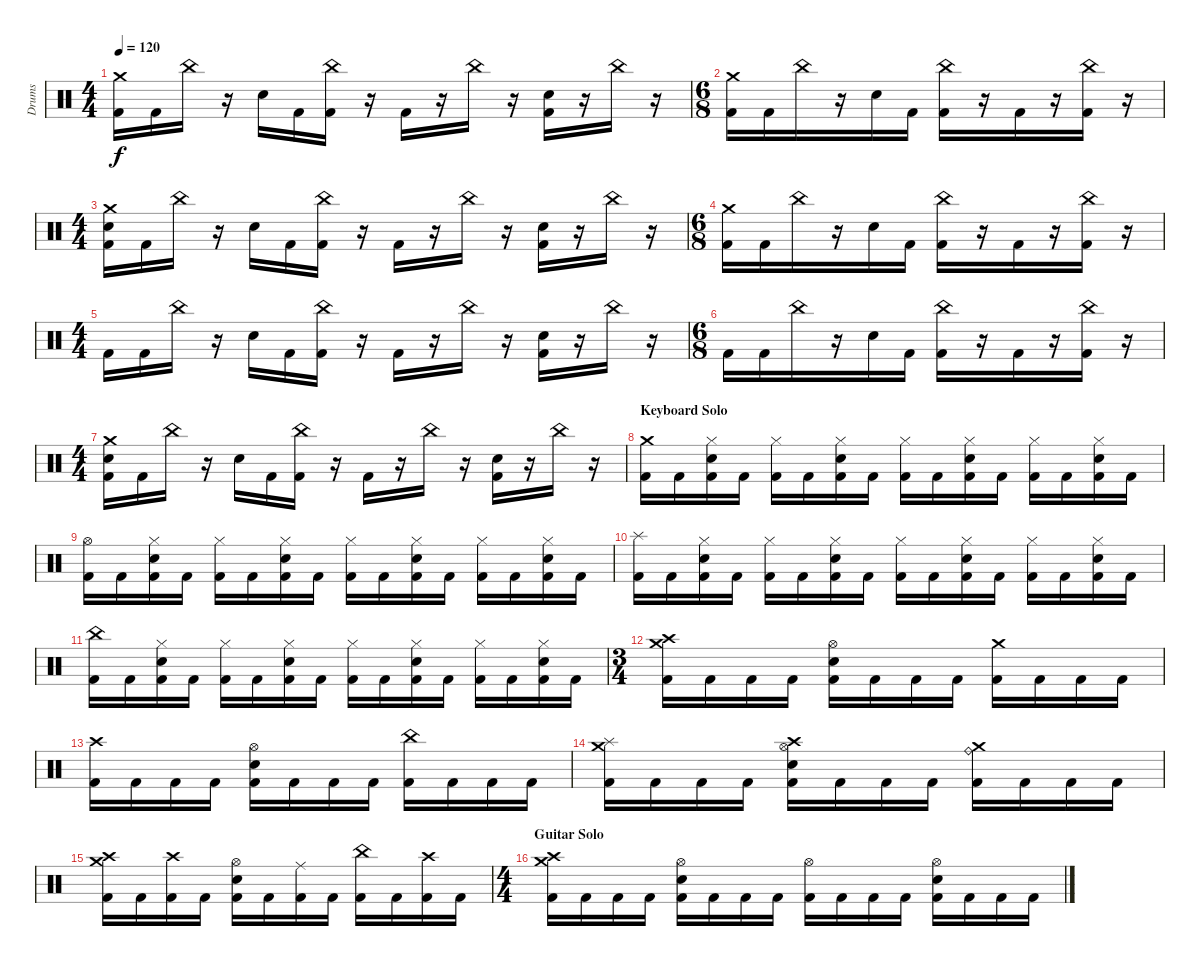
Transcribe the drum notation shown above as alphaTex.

\track ("Drums" "Drums") {instrument percussion}
\staff {score}
\articulation defaults
\ts (4 4)
\tempo 120
\clef neutral
\ks c
("Crash medium (hit)" "Kick (hit) 2").16{dy f} "Kick (hit) 2".16 "China (hit)".16 r.16 "Electric Snare (hit)".16 "Kick (hit) 2".16 ("China (hit)" "Kick (hit) 2").16 r.16 "Kick (hit) 2".16 r.16 "China (hit)".16 r.16 ("Electric Snare (hit)" "Kick (hit) 2").16 r.16 "China (hit)".16 r.16 |
\ts (6 8)
("Crash medium (hit)" "Kick (hit) 2").16 "Kick (hit) 2".16 "China (hit)".16 r.16 "Electric Snare (hit)".16 "Kick (hit) 2".16 ("China (hit)" "Kick (hit) 2").16 r.16 "Kick (hit) 2".16 r.16 ("China (hit)" "Kick (hit) 2").16 r.16 |
\ts (4 4)
("Crash medium (hit)" "Electric Snare (hit)" "Kick (hit) 2").16 "Kick (hit) 2".16 "China (hit)".16 r.16 "Electric Snare (hit)".16 "Kick (hit) 2".16 ("China (hit)" "Kick (hit) 2").16 r.16 "Kick (hit) 2".16 r.16 "China (hit)".16 r.16 ("Electric Snare (hit)" "Kick (hit) 2").16 r.16 "China (hit)".16 r.16 |
\ts (6 8)
("Crash medium (hit)" "Kick (hit) 2").16 "Kick (hit) 2".16 "China (hit)".16 r.16 "Electric Snare (hit)".16 "Kick (hit) 2".16 ("China (hit)" "Kick (hit) 2").16 r.16 "Kick (hit) 2".16 r.16 ("China (hit)" "Kick (hit) 2").16 r.16 |
\ts (4 4)
"Kick (hit) 2".16 "Kick (hit) 2".16 "China (hit)".16 r.16 "Electric Snare (hit)".16 "Kick (hit) 2".16 ("China (hit)" "Kick (hit) 2").16 r.16 "Kick (hit) 2".16 r.16 "China (hit)".16 r.16 ("Electric Snare (hit)" "Kick (hit) 2").16 r.16 "China (hit)".16 r.16 |
\ts (6 8)
"Kick (hit) 2".16 "Kick (hit) 2".16 "China (hit)".16 r.16 "Electric Snare (hit)".16 "Kick (hit) 2".16 ("China (hit)" "Kick (hit) 2").16 r.16 "Kick (hit) 2".16 r.16 ("China (hit)" "Kick (hit) 2").16 r.16 |
\ts (4 4)
("Crash medium (hit)" "Electric Snare (hit)" "Kick (hit) 2").16 "Kick (hit) 2".16 "China (hit)".16 r.16 "Electric Snare (hit)".16 "Kick (hit) 2".16 ("China (hit)" "Kick (hit) 2").16 r.16 "Kick (hit) 2".16 r.16 "China (hit)".16 r.16 ("Electric Snare (hit)" "Kick (hit) 2").16 r.16 "China (hit)".16 r.16 |
\section ("" "Keyboard Solo")
("Crash medium (hit)" "Kick (hit) 2").16 "Kick (hit) 2".16 ("Hi-Hat (closed)" "Electric Snare (hit)" "Kick (hit) 2").16 "Kick (hit) 2".16 ("Hi-Hat (closed)" "Kick (hit) 2").16 "Kick (hit) 2".16 ("Hi-Hat (closed)" "Electric Snare (hit)" "Kick (hit) 2").16 "Kick (hit) 2".16 ("Hi-Hat (closed)" "Kick (hit) 2").16 "Kick (hit) 2".16 ("Hi-Hat (closed)" "Electric Snare (hit)" "Kick (hit) 2").16 "Kick (hit) 2".16 ("Hi-Hat (closed)" "Kick (hit) 2").16 "Kick (hit) 2".16 ("Hi-Hat (closed)" "Electric Snare (hit)" "Kick (hit) 2").16 "Kick (hit) 2".16 |
("Hi-Hat (open)" "Kick (hit) 2").16 "Kick (hit) 2".16 ("Hi-Hat (closed)" "Electric Snare (hit)" "Kick (hit) 2").16 "Kick (hit) 2".16 ("Hi-Hat (closed)" "Kick (hit) 2").16 "Kick (hit) 2".16 ("Hi-Hat (closed)" "Electric Snare (hit)" "Kick (hit) 2").16 "Kick (hit) 2".16 ("Hi-Hat (closed)" "Kick (hit) 2").16 "Kick (hit) 2".16 ("Hi-Hat (closed)" "Electric Snare (hit)" "Kick (hit) 2").16 "Kick (hit) 2".16 ("Hi-Hat (closed)" "Kick (hit) 2").16 "Kick (hit) 2".16 ("Hi-Hat (closed)" "Electric Snare (hit)" "Kick (hit) 2").16 "Kick (hit) 2".16 |
("Splash (hit)" "Kick (hit) 2").16 "Kick (hit) 2".16 ("Hi-Hat (closed)" "Electric Snare (hit)" "Kick (hit) 2").16 "Kick (hit) 2".16 ("Hi-Hat (closed)" "Kick (hit) 2").16 "Kick (hit) 2".16 ("Hi-Hat (closed)" "Electric Snare (hit)" "Kick (hit) 2").16 "Kick (hit) 2".16 ("Hi-Hat (closed)" "Kick (hit) 2").16 "Kick (hit) 2".16 ("Hi-Hat (closed)" "Electric Snare (hit)" "Kick (hit) 2").16 "Kick (hit) 2".16 ("Hi-Hat (closed)" "Kick (hit) 2").16 "Kick (hit) 2".16 ("Hi-Hat (closed)" "Electric Snare (hit)" "Kick (hit) 2").16 "Kick (hit) 2".16 |
("China (hit)" "Kick (hit) 2").16 "Kick (hit) 2".16 ("Hi-Hat (closed)" "Electric Snare (hit)" "Kick (hit) 2").16 "Kick (hit) 2".16 ("Hi-Hat (closed)" "Kick (hit) 2").16 "Kick (hit) 2".16 ("Hi-Hat (closed)" "Electric Snare (hit)" "Kick (hit) 2").16 "Kick (hit) 2".16 ("Hi-Hat (closed)" "Kick (hit) 2").16 "Kick (hit) 2".16 ("Hi-Hat (closed)" "Electric Snare (hit)" "Kick (hit) 2").16 "Kick (hit) 2".16 ("Hi-Hat (closed)" "Kick (hit) 2").16 "Kick (hit) 2".16 ("Hi-Hat (closed)" "Electric Snare (hit)" "Kick (hit) 2").16 "Kick (hit) 2".16 |
\ts (3 4)
("Crash medium (hit)" "Crash high (hit)" "Kick (hit) 2").16 "Kick (hit) 2".16 "Kick (hit) 2".16 "Kick (hit) 2".16 ("Hi-Hat (open)" "Electric Snare (hit)" "Kick (hit) 2").16 "Kick (hit) 2".16 "Kick (hit) 2".16 "Kick (hit) 2".16 ("Crash medium (hit)" "Kick (hit) 2").16 "Kick (hit) 2".16 "Kick (hit) 2".16 "Kick (hit) 2".16 |
("Crash high (hit)" "Kick (hit) 2").16 "Kick (hit) 2".16 "Kick (hit) 2".16 "Kick (hit) 2".16 ("Hi-Hat (open)" "Electric Snare (hit)" "Kick (hit) 2").16 "Kick (hit) 2".16 "Kick (hit) 2".16 "Kick (hit) 2".16 ("China (hit)" "Kick (hit) 2").16 "Kick (hit) 2".16 "Kick (hit) 2".16 "Kick (hit) 2".16 |
("Crash medium (hit)" "Splash (hit)" "Kick (hit) 2").16 "Kick (hit) 2".16 "Kick (hit) 2".16 "Kick (hit) 2".16 ("Hi-Hat (open)" "Crash high (hit)" "Electric Snare (hit)" "Kick (hit) 2").16 "Kick (hit) 2".16 "Kick (hit) 2".16 "Kick (hit) 2".16 ("Crash medium (hit)" "Ride (bell)" "Kick (hit) 2").16 "Kick (hit) 2".16 "Kick (hit) 2".16 "Kick (hit) 2".16 |
("Crash medium (hit)" "Crash high (hit)" "Kick (hit) 2").16 "Kick (hit) 2".16 ("Crash high (hit)" "Kick (hit) 2").16 "Kick (hit) 2".16 ("Hi-Hat (open)" "Electric Snare (hit)" "Kick (hit) 2").16 "Kick (hit) 2".16 ("Ride (middle)" "Kick (hit) 2").16 "Kick (hit) 2".16 ("China (hit)" "Kick (hit) 2").16 "Kick (hit) 2".16 ("Crash high (hit)" "Kick (hit) 2").16 "Kick (hit) 2".16 |
\ts (4 4)
\section ("" "Guitar Solo")
("Crash medium (hit)" "Crash high (hit)" "Kick (hit) 2").16 "Kick (hit) 2".16 "Kick (hit) 2".16 "Kick (hit) 2".16 ("Hi-Hat (open)" "Electric Snare (hit)" "Kick (hit) 2").16 "Kick (hit) 2".16 "Kick (hit) 2".16 "Kick (hit) 2".16 ("Hi-Hat (open)" "Kick (hit) 2").16 "Kick (hit) 2".16 "Kick (hit) 2".16 "Kick (hit) 2".16 ("Hi-Hat (open)" "Electric Snare (hit)" "Kick (hit) 2").16 "Kick (hit) 2".16 "Kick (hit) 2".16 "Kick (hit) 2".16
